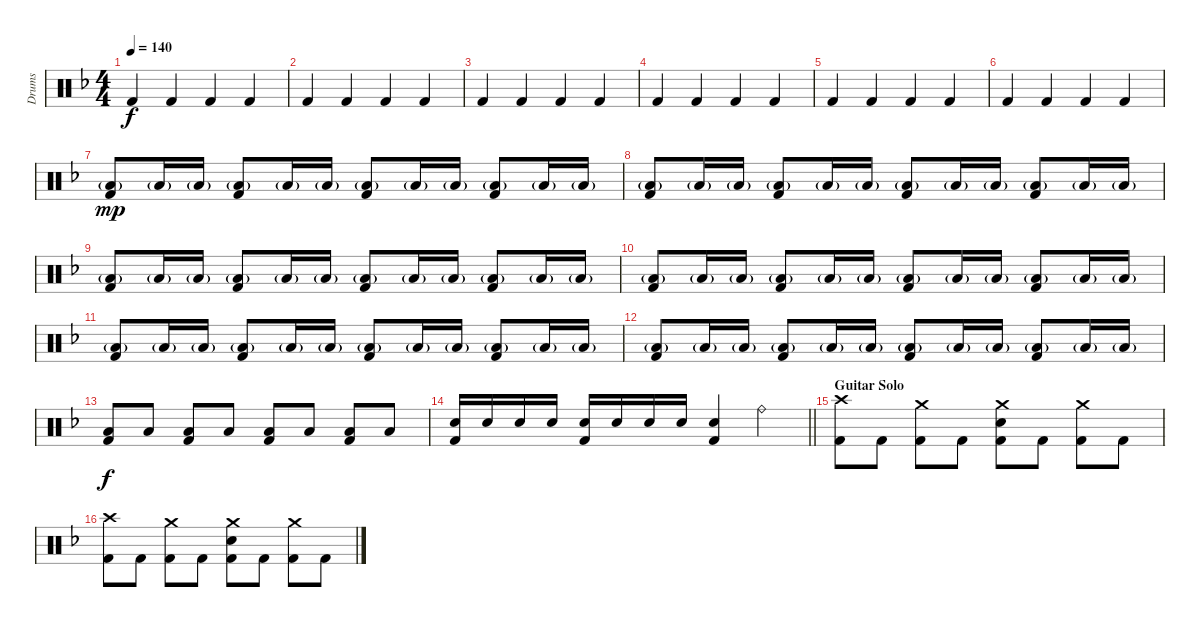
\track ("Drums" "Drums") {instrument percussion}
\staff {score}
\articulation defaults
\ts (4 4)
\tempo 140
\clef neutral
\ks dminor "Kick (hit) 2".4{dy f} "Kick (hit) 2".4 "Kick (hit) 2".4 "Kick (hit) 2".4
|
"Kick (hit) 2".4 "Kick (hit) 2".4 "Kick (hit) 2".4 "Kick (hit) 2".4 |
"Kick (hit) 2".4 "Kick (hit) 2".4 "Kick (hit) 2".4 "Kick (hit) 2".4 |
"Kick (hit) 2".4 "Kick (hit) 2".4 "Kick (hit) 2".4 "Kick (hit) 2".4 |
"Kick (hit) 2".4 "Kick (hit) 2".4 "Kick (hit) 2".4 "Kick (hit) 2".4 |
"Kick (hit) 2".4 "Kick (hit) 2".4 "Kick (hit) 2".4 "Kick (hit) 2".4 |
("Low Floor Tom (hit)"{g} "Kick (hit) 2").8{dy mp} "Low Floor Tom (hit)"{g}.16 "Low Floor Tom (hit)"{g}.16 ("Low Floor Tom (hit)"{g} "Kick (hit) 2").8 "Low Floor Tom (hit)"{g}.16 "Low Floor Tom (hit)"{g}.16 ("Low Floor Tom (hit)"{g} "Kick (hit) 2").8 "Low Floor Tom (hit)"{g}.16 "Low Floor Tom (hit)"{g}.16 ("Low Floor Tom (hit)"{g} "Kick (hit) 2").8 "Low Floor Tom (hit)"{g}.16 "Low Floor Tom (hit)"{g}.16 |
("Low Floor Tom (hit)"{g} "Kick (hit) 2").8 "Low Floor Tom (hit)"{g}.16 "Low Floor Tom (hit)"{g}.16 ("Low Floor Tom (hit)"{g} "Kick (hit) 2").8 "Low Floor Tom (hit)"{g}.16 "Low Floor Tom (hit)"{g}.16 ("Low Floor Tom (hit)"{g} "Kick (hit) 2").8 "Low Floor Tom (hit)"{g}.16 "Low Floor Tom (hit)"{g}.16 ("Low Floor Tom (hit)"{g} "Kick (hit) 2").8 "Low Floor Tom (hit)"{g}.16 "Low Floor Tom (hit)"{g}.16 |
("Low Floor Tom (hit)"{g} "Kick (hit) 2").8 "Low Floor Tom (hit)"{g}.16 "Low Floor Tom (hit)"{g}.16 ("Low Floor Tom (hit)"{g} "Kick (hit) 2").8 "Low Floor Tom (hit)"{g}.16 "Low Floor Tom (hit)"{g}.16 ("Low Floor Tom (hit)"{g} "Kick (hit) 2").8 "Low Floor Tom (hit)"{g}.16 "Low Floor Tom (hit)"{g}.16 ("Low Floor Tom (hit)"{g} "Kick (hit) 2").8 "Low Floor Tom (hit)"{g}.16 "Low Floor Tom (hit)"{g}.16 |
("Low Floor Tom (hit)"{g} "Kick (hit) 2").8 "Low Floor Tom (hit)"{g}.16 "Low Floor Tom (hit)"{g}.16 ("Low Floor Tom (hit)"{g} "Kick (hit) 2").8 "Low Floor Tom (hit)"{g}.16 "Low Floor Tom (hit)"{g}.16 ("Low Floor Tom (hit)"{g} "Kick (hit) 2").8 "Low Floor Tom (hit)"{g}.16 "Low Floor Tom (hit)"{g}.16 ("Low Floor Tom (hit)"{g} "Kick (hit) 2").8 "Low Floor Tom (hit)"{g}.16 "Low Floor Tom (hit)"{g}.16 |
("Low Floor Tom (hit)"{g} "Kick (hit) 2").8 "Low Floor Tom (hit)"{g}.16 "Low Floor Tom (hit)"{g}.16 ("Low Floor Tom (hit)"{g} "Kick (hit) 2").8 "Low Floor Tom (hit)"{g}.16 "Low Floor Tom (hit)"{g}.16 ("Low Floor Tom (hit)"{g} "Kick (hit) 2").8 "Low Floor Tom (hit)"{g}.16 "Low Floor Tom (hit)"{g}.16 ("Low Floor Tom (hit)"{g} "Kick (hit) 2").8 "Low Floor Tom (hit)"{g}.16 "Low Floor Tom (hit)"{g}.16 |
("Low Floor Tom (hit)"{g} "Kick (hit) 2").8 "Low Floor Tom (hit)"{g}.16 "Low Floor Tom (hit)"{g}.16 ("Low Floor Tom (hit)"{g} "Kick (hit) 2").8 "Low Floor Tom (hit)"{g}.16 "Low Floor Tom (hit)"{g}.16 ("Low Floor Tom (hit)"{g} "Kick (hit) 2").8 "Low Floor Tom (hit)"{g}.16 "Low Floor Tom (hit)"{g}.16 ("Low Floor Tom (hit)"{g} "Kick (hit) 2").8 "Low Floor Tom (hit)"{g}.16 "Low Floor Tom (hit)"{g}.16 |
("Low Floor Tom (hit)" "Kick (hit) 2").8{dy f} "Low Floor Tom (hit)".8 ("Low Floor Tom (hit)" "Kick (hit) 2").8 "Low Floor Tom (hit)".8 ("Low Floor Tom (hit)" "Kick (hit) 2").8 "Low Floor Tom (hit)".8 ("Low Floor Tom (hit)" "Kick (hit) 2").8 "Low Floor Tom (hit)".8 |
\barLineRight lightlight
("Snare (hit) 2" "Kick (hit) 2").16 "Snare (hit) 2".16 "Snare (hit) 2".16 "Snare (hit) 2".16 ("Snare (hit) 2" "Kick (hit) 2").16 "Snare (hit) 2".16 "Snare (hit) 2".16 "Snare (hit) 2".16 ("Snare (hit) 2" "Kick (hit) 2").4 "Ride (bell)".4 |
\section ("" "Guitar Solo")
("Crash high (hit)" "Kick (hit) 2").8 "Kick (hit) 2".8 ("Crash medium (hit)" "Kick (hit) 2").8 "Kick (hit) 2".8 ("Crash medium (hit)" "Snare (hit) 2" "Kick (hit) 2").8 "Kick (hit) 2".8 ("Crash medium (hit)" "Kick (hit) 2").8 "Kick (hit) 2".8 |
("Crash high (hit)" "Kick (hit) 2").8 "Kick (hit) 2".8 ("Crash medium (hit)" "Kick (hit) 2").8 "Kick (hit) 2".8 ("Crash medium (hit)" "Snare (hit) 2" "Kick (hit) 2").8 "Kick (hit) 2".8 ("Crash medium (hit)" "Kick (hit) 2").8 "Kick (hit) 2".8
